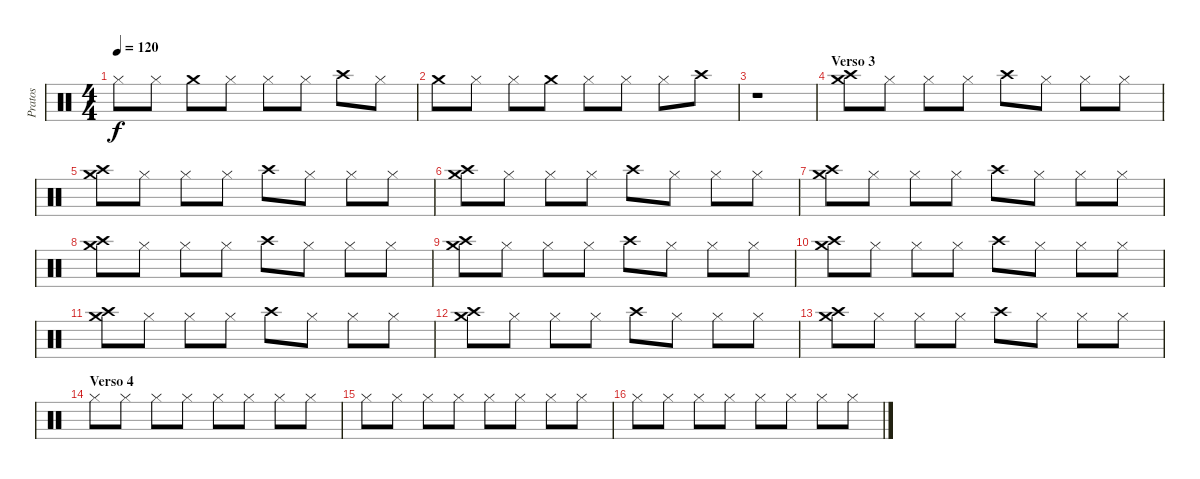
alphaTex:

\track ("Pratos" "Pratos") {instrument percussion}
\staff {score}
\articulation defaults
\ts (4 4)
\tempo 120
\clef neutral
\ks c "Hi-Hat (closed)".8{dy f} "Hi-Hat (closed)".8 "Crash medium (hit)".8 "Hi-Hat (closed)".8 "Hi-Hat (closed)".8 "Hi-Hat (closed)".8 "Crash high (hit)".8 "Hi-Hat (closed)".8
|
"Crash medium (hit)".8 "Hi-Hat (closed)".8 "Hi-Hat (closed)".8 "Crash medium (hit)".8 "Hi-Hat (closed)".8 "Hi-Hat (closed)".8 "Hi-Hat (closed)".8 "Crash high (hit)".8 |
r.1 |
\section ("" "Verso 3")
("Crash high (hit)" "Crash medium (hit)").8 "Hi-Hat (closed)".8 "Hi-Hat (closed)".8 "Hi-Hat (closed)".8 "Crash high (hit)".8 "Hi-Hat (closed)".8 "Hi-Hat (closed)".8 "Hi-Hat (closed)".8 |
("Crash high (hit)" "Crash medium (hit)").8 "Hi-Hat (closed)".8 "Hi-Hat (closed)".8 "Hi-Hat (closed)".8 "Crash high (hit)".8 "Hi-Hat (closed)".8 "Hi-Hat (closed)".8 "Hi-Hat (closed)".8 |
("Crash high (hit)" "Crash medium (hit)").8 "Hi-Hat (closed)".8 "Hi-Hat (closed)".8 "Hi-Hat (closed)".8 "Crash high (hit)".8 "Hi-Hat (closed)".8 "Hi-Hat (closed)".8 "Hi-Hat (closed)".8 |
("Crash high (hit)" "Crash medium (hit)").8 "Hi-Hat (closed)".8 "Hi-Hat (closed)".8 "Hi-Hat (closed)".8 "Crash high (hit)".8 "Hi-Hat (closed)".8 "Hi-Hat (closed)".8 "Hi-Hat (closed)".8 |
("Crash high (hit)" "Crash medium (hit)").8 "Hi-Hat (closed)".8 "Hi-Hat (closed)".8 "Hi-Hat (closed)".8 "Crash high (hit)".8 "Hi-Hat (closed)".8 "Hi-Hat (closed)".8 "Hi-Hat (closed)".8 |
("Crash high (hit)" "Crash medium (hit)").8 "Hi-Hat (closed)".8 "Hi-Hat (closed)".8 "Hi-Hat (closed)".8 "Crash high (hit)".8 "Hi-Hat (closed)".8 "Hi-Hat (closed)".8 "Hi-Hat (closed)".8 |
("Crash high (hit)" "Crash medium (hit)").8 "Hi-Hat (closed)".8 "Hi-Hat (closed)".8 "Hi-Hat (closed)".8 "Crash high (hit)".8 "Hi-Hat (closed)".8 "Hi-Hat (closed)".8 "Hi-Hat (closed)".8 |
("Crash high (hit)" "Crash medium (hit)").8 "Hi-Hat (closed)".8 "Hi-Hat (closed)".8 "Hi-Hat (closed)".8 "Crash high (hit)".8 "Hi-Hat (closed)".8 "Hi-Hat (closed)".8 "Hi-Hat (closed)".8 |
("Crash high (hit)" "Crash medium (hit)").8 "Hi-Hat (closed)".8 "Hi-Hat (closed)".8 "Hi-Hat (closed)".8 "Crash high (hit)".8 "Hi-Hat (closed)".8 "Hi-Hat (closed)".8 "Hi-Hat (closed)".8 |
("Crash high (hit)" "Crash medium (hit)").8 "Hi-Hat (closed)".8 "Hi-Hat (closed)".8 "Hi-Hat (closed)".8 "Crash high (hit)".8 "Hi-Hat (closed)".8 "Hi-Hat (closed)".8 "Hi-Hat (closed)".8 |
\section ("" "Verso 4")
"Hi-Hat (closed)".8 "Hi-Hat (closed)".8 "Hi-Hat (closed)".8 "Hi-Hat (closed)".8 "Hi-Hat (closed)".8 "Hi-Hat (closed)".8 "Hi-Hat (closed)".8 "Hi-Hat (closed)".8 |
"Hi-Hat (closed)".8 "Hi-Hat (closed)".8 "Hi-Hat (closed)".8 "Hi-Hat (closed)".8 "Hi-Hat (closed)".8 "Hi-Hat (closed)".8 "Hi-Hat (closed)".8 "Hi-Hat (closed)".8 |
"Hi-Hat (closed)".8 "Hi-Hat (closed)".8 "Hi-Hat (closed)".8 "Hi-Hat (closed)".8 "Hi-Hat (closed)".8 "Hi-Hat (closed)".8 "Hi-Hat (closed)".8 "Hi-Hat (closed)".8
